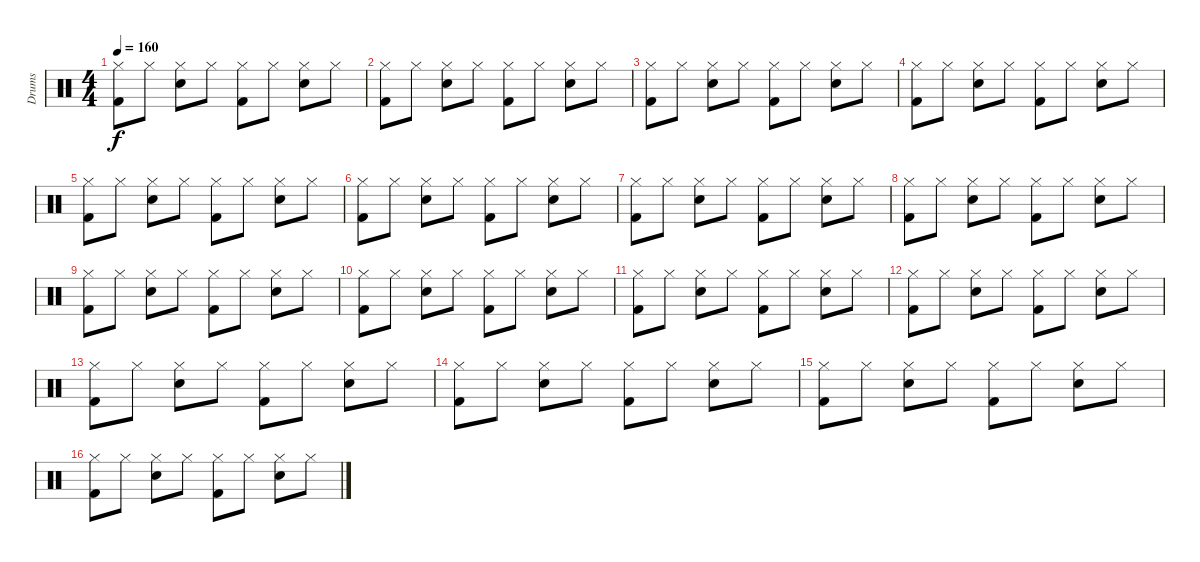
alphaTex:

\track ("Drums" "Drums") {instrument percussion}
\staff {score}
\articulation defaults
\ts (4 4)
\tempo 160
\clef neutral
\ks c
("Kick (hit) 2" "Hi-Hat (closed)").8{dy f} "Hi-Hat (closed)".8 ("Electric Snare (hit)" "Hi-Hat (closed)").8 "Hi-Hat (closed)".8 ("Kick (hit) 2" "Hi-Hat (closed)").8 "Hi-Hat (closed)".8 ("Electric Snare (hit)" "Hi-Hat (closed)").8 "Hi-Hat (closed)".8 |
("Kick (hit) 2" "Hi-Hat (closed)").8 "Hi-Hat (closed)".8 ("Electric Snare (hit)" "Hi-Hat (closed)").8 "Hi-Hat (closed)".8 ("Kick (hit) 2" "Hi-Hat (closed)").8 "Hi-Hat (closed)".8 ("Electric Snare (hit)" "Hi-Hat (closed)").8 "Hi-Hat (closed)".8 |
("Kick (hit) 2" "Hi-Hat (closed)").8 "Hi-Hat (closed)".8 ("Electric Snare (hit)" "Hi-Hat (closed)").8 "Hi-Hat (closed)".8 ("Kick (hit) 2" "Hi-Hat (closed)").8 "Hi-Hat (closed)".8 ("Electric Snare (hit)" "Hi-Hat (closed)").8 "Hi-Hat (closed)".8 |
("Kick (hit) 2" "Hi-Hat (closed)").8 "Hi-Hat (closed)".8 ("Electric Snare (hit)" "Hi-Hat (closed)").8 "Hi-Hat (closed)".8 ("Kick (hit) 2" "Hi-Hat (closed)").8 "Hi-Hat (closed)".8 ("Electric Snare (hit)" "Hi-Hat (closed)").8 "Hi-Hat (closed)".8 |
("Kick (hit) 2" "Hi-Hat (closed)").8 "Hi-Hat (closed)".8 ("Electric Snare (hit)" "Hi-Hat (closed)").8 "Hi-Hat (closed)".8 ("Kick (hit) 2" "Hi-Hat (closed)").8 "Hi-Hat (closed)".8 ("Electric Snare (hit)" "Hi-Hat (closed)").8 "Hi-Hat (closed)".8 |
("Kick (hit) 2" "Hi-Hat (closed)").8 "Hi-Hat (closed)".8 ("Electric Snare (hit)" "Hi-Hat (closed)").8 "Hi-Hat (closed)".8 ("Kick (hit) 2" "Hi-Hat (closed)").8 "Hi-Hat (closed)".8 ("Electric Snare (hit)" "Hi-Hat (closed)").8 "Hi-Hat (closed)".8 |
("Kick (hit) 2" "Hi-Hat (closed)").8 "Hi-Hat (closed)".8 ("Electric Snare (hit)" "Hi-Hat (closed)").8 "Hi-Hat (closed)".8 ("Kick (hit) 2" "Hi-Hat (closed)").8 "Hi-Hat (closed)".8 ("Electric Snare (hit)" "Hi-Hat (closed)").8 "Hi-Hat (closed)".8 |
("Kick (hit) 2" "Hi-Hat (closed)").8 "Hi-Hat (closed)".8 ("Electric Snare (hit)" "Hi-Hat (closed)").8 "Hi-Hat (closed)".8 ("Kick (hit) 2" "Hi-Hat (closed)").8 "Hi-Hat (closed)".8 ("Electric Snare (hit)" "Hi-Hat (closed)").8 "Hi-Hat (closed)".8 |
("Kick (hit) 2" "Hi-Hat (closed)").8 "Hi-Hat (closed)".8 ("Electric Snare (hit)" "Hi-Hat (closed)").8 "Hi-Hat (closed)".8 ("Kick (hit) 2" "Hi-Hat (closed)").8 "Hi-Hat (closed)".8 ("Electric Snare (hit)" "Hi-Hat (closed)").8 "Hi-Hat (closed)".8 |
("Kick (hit) 2" "Hi-Hat (closed)").8 "Hi-Hat (closed)".8 ("Electric Snare (hit)" "Hi-Hat (closed)").8 "Hi-Hat (closed)".8 ("Kick (hit) 2" "Hi-Hat (closed)").8 "Hi-Hat (closed)".8 ("Electric Snare (hit)" "Hi-Hat (closed)").8 "Hi-Hat (closed)".8 |
("Kick (hit) 2" "Hi-Hat (closed)").8 "Hi-Hat (closed)".8 ("Electric Snare (hit)" "Hi-Hat (closed)").8 "Hi-Hat (closed)".8 ("Kick (hit) 2" "Hi-Hat (closed)").8 "Hi-Hat (closed)".8 ("Electric Snare (hit)" "Hi-Hat (closed)").8 "Hi-Hat (closed)".8 |
("Kick (hit) 2" "Hi-Hat (closed)").8 "Hi-Hat (closed)".8 ("Electric Snare (hit)" "Hi-Hat (closed)").8 "Hi-Hat (closed)".8 ("Kick (hit) 2" "Hi-Hat (closed)").8 "Hi-Hat (closed)".8 ("Electric Snare (hit)" "Hi-Hat (closed)").8 "Hi-Hat (closed)".8 |
("Kick (hit) 2" "Hi-Hat (closed)").8 "Hi-Hat (closed)".8 ("Electric Snare (hit)" "Hi-Hat (closed)").8 "Hi-Hat (closed)".8 ("Kick (hit) 2" "Hi-Hat (closed)").8 "Hi-Hat (closed)".8 ("Electric Snare (hit)" "Hi-Hat (closed)").8 "Hi-Hat (closed)".8 |
("Kick (hit) 2" "Hi-Hat (closed)").8 "Hi-Hat (closed)".8 ("Electric Snare (hit)" "Hi-Hat (closed)").8 "Hi-Hat (closed)".8 ("Kick (hit) 2" "Hi-Hat (closed)").8 "Hi-Hat (closed)".8 ("Electric Snare (hit)" "Hi-Hat (closed)").8 "Hi-Hat (closed)".8 |
("Kick (hit) 2" "Hi-Hat (closed)").8 "Hi-Hat (closed)".8 ("Electric Snare (hit)" "Hi-Hat (closed)").8 "Hi-Hat (closed)".8 ("Kick (hit) 2" "Hi-Hat (closed)").8 "Hi-Hat (closed)".8 ("Electric Snare (hit)" "Hi-Hat (closed)").8 "Hi-Hat (closed)".8 |
("Kick (hit) 2" "Hi-Hat (closed)").8 "Hi-Hat (closed)".8 ("Electric Snare (hit)" "Hi-Hat (closed)").8 "Hi-Hat (closed)".8 ("Kick (hit) 2" "Hi-Hat (closed)").8 "Hi-Hat (closed)".8 ("Electric Snare (hit)" "Hi-Hat (closed)").8 "Hi-Hat (closed)".8
